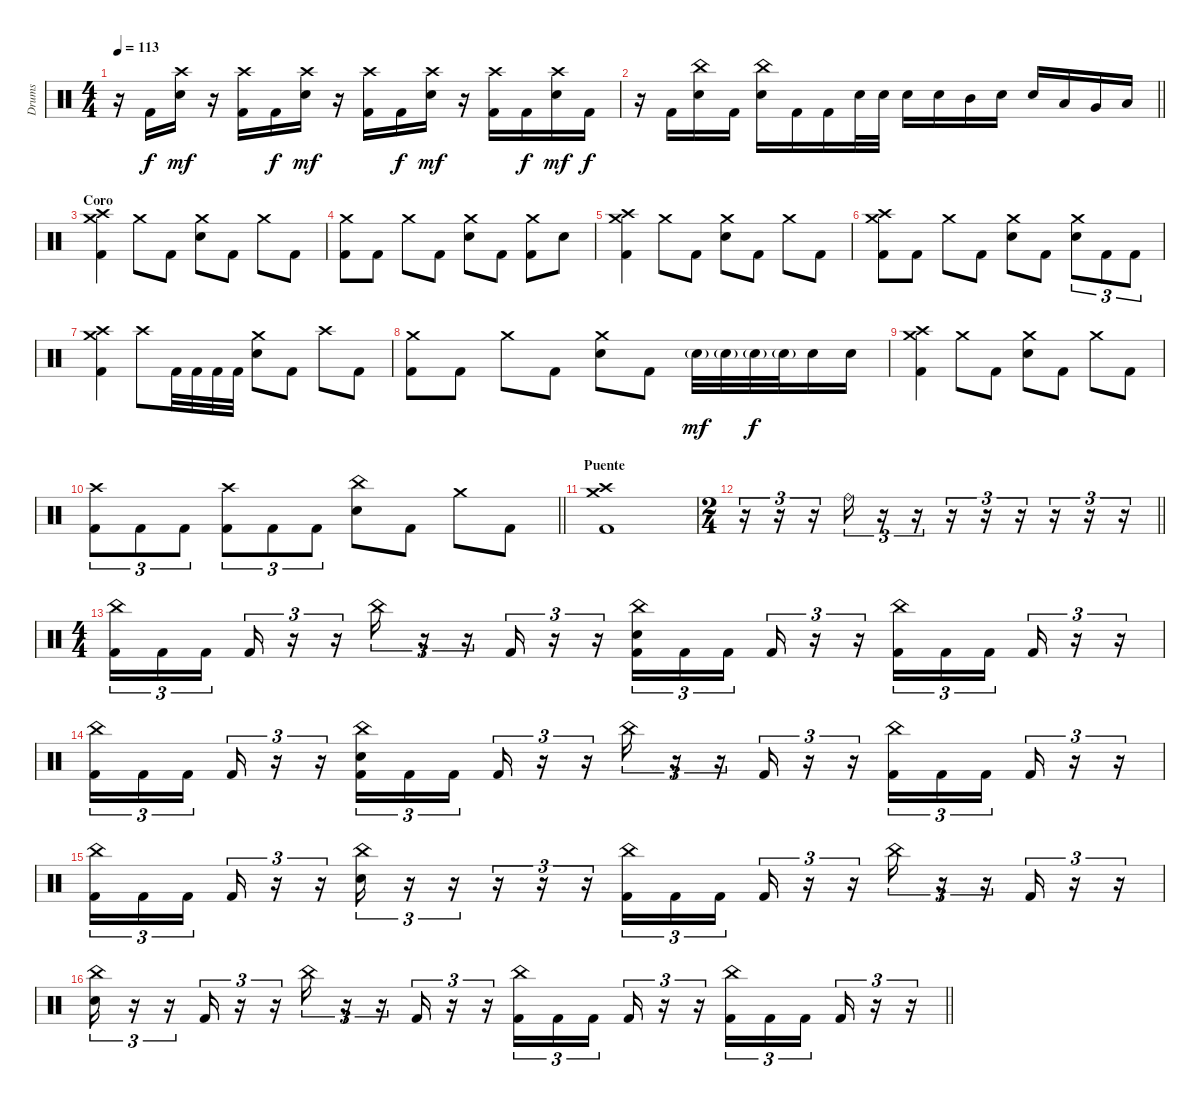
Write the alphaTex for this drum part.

\track ("Drums" "Drums") {instrument percussion}
\staff {score}
\articulation defaults
\ts (4 4)
\tempo 113
\clef neutral
\ks c
r.16{dy f} "Kick (hit) 2".16 ("Crash high (hit)" "Electric Snare (hit)").16{dy mf} r.16 ("Crash high (hit)" "Kick (hit) 2").16 "Kick (hit) 2".16{dy f} ("Crash high (hit)" "Electric Snare (hit)").16{dy mf} r.16 ("Crash high (hit)" "Kick (hit) 2").16 "Kick (hit) 2".16{dy f} ("Crash high (hit)" "Electric Snare (hit)").16{dy mf} r.16 ("Crash high (hit)" "Kick (hit) 2").16 "Kick (hit) 2".16{dy f} ("Crash high (hit)" "Electric Snare (hit)").16{dy mf} "Kick (hit) 2".16{dy f} |
\barLineRight lightlight
r.16 "Kick (hit) 2".16 ("China (hit)" "Electric Snare (hit)").16 "Kick (hit) 2".16 ("China (hit)" "Electric Snare (hit)").16 "Kick (hit) 2".16 "Kick (hit) 2".16 "Electric Snare (hit)".32 "Electric Snare (hit)".32 "Electric Snare (hit)".16 "Electric Snare (hit)".16 "Mid Tom (hit)".16 "Electric Snare (hit)".16 "Electric Snare (hit)".16 "Low Tom (hit)".16 "Very Low Tom (hit)".16 "Low Floor Tom (hit)".16 |
\section ("" "Coro")
("Crash medium (hit)" "Crash high (hit)" "Kick (hit) 2").4 "Crash medium (hit)".8 "Kick (hit) 2".8 ("Crash medium (hit)" "Electric Snare (hit)").8 "Kick (hit) 2".8 "Crash medium (hit)".8 "Kick (hit) 2".8 |
("Crash medium (hit)" "Kick (hit) 2").8 "Kick (hit) 2".8 "Crash medium (hit)".8 "Kick (hit) 2".8 ("Crash medium (hit)" "Electric Snare (hit)").8 "Kick (hit) 2".8 ("Crash medium (hit)" "Kick (hit) 2").8 "Electric Snare (hit)".8 |
("Crash medium (hit)" "Crash high (hit)" "Kick (hit) 2").4 "Crash medium (hit)".8 "Kick (hit) 2".8 ("Crash medium (hit)" "Electric Snare (hit)").8 "Kick (hit) 2".8 "Crash medium (hit)".8 "Kick (hit) 2".8 |
("Crash medium (hit)" "Crash high (hit)" "Kick (hit) 2").8 "Kick (hit) 2".8 "Crash medium (hit)".8 "Kick (hit) 2".8 ("Crash medium (hit)" "Electric Snare (hit)").8 "Kick (hit) 2".8 ("Crash medium (hit)" "Electric Snare (hit)").8{tu (3 2)} "Kick (hit) 2".8{tu (3 2)} "Kick (hit) 2".8{tu (3 2)} |
("Crash medium (hit)" "Crash high (hit)" "Kick (hit) 2").4 "Crash high (hit)".8 "Kick (hit) 2".32 "Kick (hit) 2".32 "Kick (hit) 2".32 "Kick (hit) 2".32 ("Crash medium (hit)" "Electric Snare (hit)").8 "Kick (hit) 2".8 "Crash high (hit)".8 "Kick (hit) 2".8 |
("Crash medium (hit)" "Kick (hit) 2").8 "Kick (hit) 2".8 "Crash medium (hit)".8 "Kick (hit) 2".8 ("Crash medium (hit)" "Electric Snare (hit)").8 "Kick (hit) 2".8 "Electric Snare (hit)"{g}.32{dy mf} "Electric Snare (hit)"{g}.32 "Electric Snare (hit)"{g}.32{dy f} "Electric Snare (hit)"{g}.32 "Electric Snare (hit)".16 "Electric Snare (hit)".16 |
("Crash medium (hit)" "Crash high (hit)" "Kick (hit) 2").4 "Crash medium (hit)".8 "Kick (hit) 2".8 ("Crash medium (hit)" "Electric Snare (hit)").8 "Kick (hit) 2".8 "Crash medium (hit)".8 "Kick (hit) 2".8 |
\barLineRight lightlight
("Crash high (hit)" "Kick (hit) 2").8{tu (3 2)} "Kick (hit) 2".8{tu (3 2)} "Kick (hit) 2".8{tu (3 2)} ("Crash high (hit)" "Kick (hit) 2").8{tu (3 2)} "Kick (hit) 2".8{tu (3 2)} "Kick (hit) 2".8{tu (3 2)} ("China (hit)" "Electric Snare (hit)").8 "Kick (hit) 2".8 "Crash medium (hit)".8 "Kick (hit) 2".8 |
\section ("" "Puente")
("Crash medium (hit)" "Crash high (hit)" "Kick (hit) 2").1 |
\ts (2 4)
\barLineRight lightlight
r.16{tu (3 2)} r.16{tu (3 2)} r.16{tu (3 2)} "Ride (bell)".16{tu (3 2)} r.16{tu (3 2)} r.16{tu (3 2)} r.16{tu (3 2)} r.16{tu (3 2)} r.16{tu (3 2)} r.16{tu (3 2)} r.16{tu (3 2)} r.16{tu (3 2)} |
\ts (4 4)
\section ("" "")
("China (hit)" "Kick (hit) 2").16{tu (3 2)} "Kick (hit) 2".16{tu (3 2)} "Kick (hit) 2".16{tu (3 2) beam splitsecondary} "Kick (hit) 2".16{tu (3 2)} r.16{tu (3 2)} r.16{tu (3 2)} "China (hit)".16{tu (3 2)} r.16{tu (3 2)} r.16{tu (3 2)} "Kick (hit) 2".16{tu (3 2)} r.16{tu (3 2)} r.16{tu (3 2)} ("China (hit)" "Electric Snare (hit)" "Kick (hit) 2").16{tu (3 2)} "Kick (hit) 2".16{tu (3 2)} "Kick (hit) 2".16{tu (3 2) beam splitsecondary} "Kick (hit) 2".16{tu (3 2)} r.16{tu (3 2)} r.16{tu (3 2)} ("China (hit)" "Kick (hit) 2").16{tu (3 2)} "Kick (hit) 2".16{tu (3 2)} "Kick (hit) 2".16{tu (3 2) beam splitsecondary} "Kick (hit) 2".16{tu (3 2)} r.16{tu (3 2)} r.16{tu (3 2)} |
("China (hit)" "Kick (hit) 2").16{tu (3 2)} "Kick (hit) 2".16{tu (3 2)} "Kick (hit) 2".16{tu (3 2) beam splitsecondary} "Kick (hit) 2".16{tu (3 2)} r.16{tu (3 2)} r.16{tu (3 2)} ("China (hit)" "Electric Snare (hit)" "Kick (hit) 2").16{tu (3 2)} "Kick (hit) 2".16{tu (3 2)} "Kick (hit) 2".16{tu (3 2) beam splitsecondary} "Kick (hit) 2".16{tu (3 2)} r.16{tu (3 2)} r.16{tu (3 2)} "China (hit)".16{tu (3 2)} r.16{tu (3 2)} r.16{tu (3 2)} "Kick (hit) 2".16{tu (3 2)} r.16{tu (3 2)} r.16{tu (3 2)} ("China (hit)" "Kick (hit) 2").16{tu (3 2)} "Kick (hit) 2".16{tu (3 2)} "Kick (hit) 2".16{tu (3 2) beam splitsecondary} "Kick (hit) 2".16{tu (3 2)} r.16{tu (3 2)} r.16{tu (3 2)} |
("China (hit)" "Kick (hit) 2").16{tu (3 2)} "Kick (hit) 2".16{tu (3 2)} "Kick (hit) 2".16{tu (3 2) beam splitsecondary} "Kick (hit) 2".16{tu (3 2)} r.16{tu (3 2)} r.16{tu (3 2)} ("China (hit)" "Electric Snare (hit)").16{tu (3 2)} r.16{tu (3 2)} r.16{tu (3 2)} r.16{tu (3 2)} r.16{tu (3 2)} r.16{tu (3 2)} ("China (hit)" "Kick (hit) 2").16{tu (3 2)} "Kick (hit) 2".16{tu (3 2)} "Kick (hit) 2".16{tu (3 2) beam splitsecondary} "Kick (hit) 2".16{tu (3 2)} r.16{tu (3 2)} r.16{tu (3 2)} "China (hit)".16{tu (3 2)} r.16{tu (3 2)} r.16{tu (3 2)} "Kick (hit) 2".16{tu (3 2)} r.16{tu (3 2)} r.16{tu (3 2)} |
\barLineRight lightlight
("China (hit)" "Electric Snare (hit)").16{tu (3 2)} r.16{tu (3 2)} r.16{tu (3 2)} "Kick (hit) 2".16{tu (3 2)} r.16{tu (3 2)} r.16{tu (3 2)} "China (hit)".16{tu (3 2)} r.16{tu (3 2)} r.16{tu (3 2)} "Kick (hit) 2".16{tu (3 2)} r.16{tu (3 2)} r.16{tu (3 2)} ("China (hit)" "Kick (hit) 2").16{tu (3 2)} "Kick (hit) 2".16{tu (3 2)} "Kick (hit) 2".16{tu (3 2) beam splitsecondary} "Kick (hit) 2".16{tu (3 2)} r.16{tu (3 2)} r.16{tu (3 2)} ("China (hit)" "Kick (hit) 2").16{tu (3 2)} "Kick (hit) 2".16{tu (3 2)} "Kick (hit) 2".16{tu (3 2) beam splitsecondary} "Kick (hit) 2".16{tu (3 2)} r.16{tu (3 2)} r.16{tu (3 2)}
